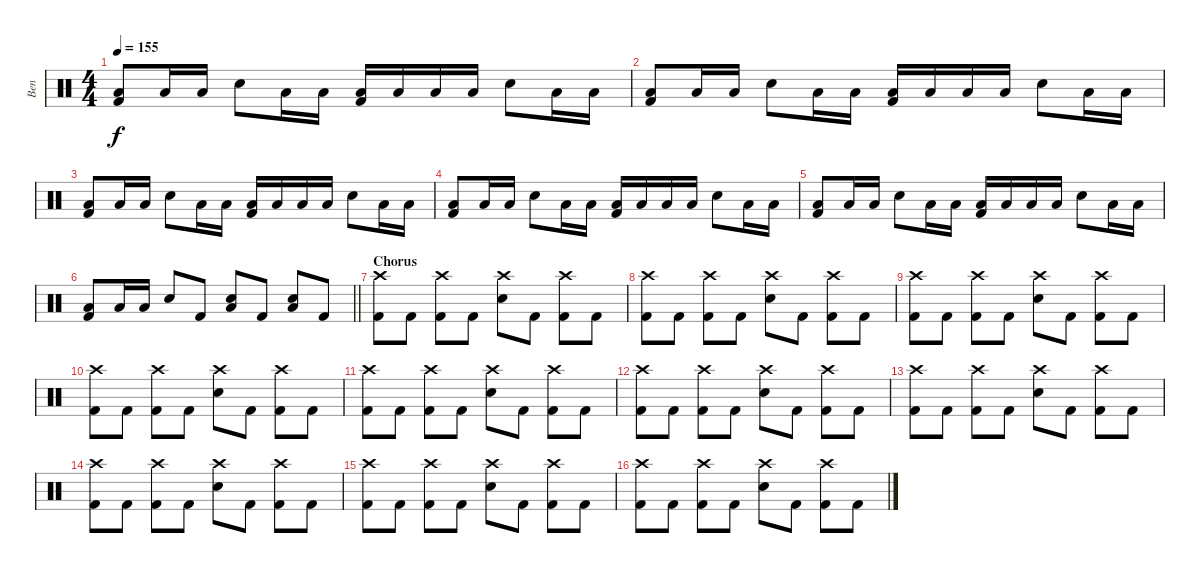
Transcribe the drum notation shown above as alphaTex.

\track ("Ben" "Ben") {instrument percussion}
\staff {score}
\articulation defaults
\ts (4 4)
\tempo 155
\clef neutral
\ks c
("Kick (hit) 2" "Low Floor Tom (hit)").8{dy f} "Low Floor Tom (hit)".16 "Low Floor Tom (hit)".16 "Electric Snare (hit)".8 "Low Floor Tom (hit)".16 "Low Floor Tom (hit)".16 ("Low Floor Tom (hit)" "Kick (hit) 2").16 "Low Floor Tom (hit)".16 "Low Floor Tom (hit)".16 "Low Floor Tom (hit)".16 "Electric Snare (hit)".8 "Low Floor Tom (hit)".16 "Low Floor Tom (hit)".16 |
("Kick (hit) 2" "Low Floor Tom (hit)").8 "Low Floor Tom (hit)".16 "Low Floor Tom (hit)".16 "Electric Snare (hit)".8 "Low Floor Tom (hit)".16 "Low Floor Tom (hit)".16 ("Low Floor Tom (hit)" "Kick (hit) 2").16 "Low Floor Tom (hit)".16 "Low Floor Tom (hit)".16 "Low Floor Tom (hit)".16 "Electric Snare (hit)".8 "Low Floor Tom (hit)".16 "Low Floor Tom (hit)".16 |
("Kick (hit) 2" "Low Floor Tom (hit)").8 "Low Floor Tom (hit)".16 "Low Floor Tom (hit)".16 "Electric Snare (hit)".8 "Low Floor Tom (hit)".16 "Low Floor Tom (hit)".16 ("Low Floor Tom (hit)" "Kick (hit) 2").16 "Low Floor Tom (hit)".16 "Low Floor Tom (hit)".16 "Low Floor Tom (hit)".16 "Electric Snare (hit)".8 "Low Floor Tom (hit)".16 "Low Floor Tom (hit)".16 |
("Kick (hit) 2" "Low Floor Tom (hit)").8 "Low Floor Tom (hit)".16 "Low Floor Tom (hit)".16 "Electric Snare (hit)".8 "Low Floor Tom (hit)".16 "Low Floor Tom (hit)".16 ("Low Floor Tom (hit)" "Kick (hit) 2").16 "Low Floor Tom (hit)".16 "Low Floor Tom (hit)".16 "Low Floor Tom (hit)".16 "Electric Snare (hit)".8 "Low Floor Tom (hit)".16 "Low Floor Tom (hit)".16 |
("Kick (hit) 2" "Low Floor Tom (hit)").8 "Low Floor Tom (hit)".16 "Low Floor Tom (hit)".16 "Electric Snare (hit)".8 "Low Floor Tom (hit)".16 "Low Floor Tom (hit)".16 ("Low Floor Tom (hit)" "Kick (hit) 2").16 "Low Floor Tom (hit)".16 "Low Floor Tom (hit)".16 "Low Floor Tom (hit)".16 "Electric Snare (hit)".8 "Low Floor Tom (hit)".16 "Low Floor Tom (hit)".16 |
\barLineRight lightlight
("Kick (hit) 2" "Low Floor Tom (hit)").8 "Low Floor Tom (hit)".16 "Low Floor Tom (hit)".16 "Electric Snare (hit)".8 "Kick (hit) 2".8 ("Electric Snare (hit)" "Low Floor Tom (hit)").8 "Kick (hit) 2".8 ("Electric Snare (hit)" "Low Floor Tom (hit)").8 "Kick (hit) 2".8 |
\section ("" "Chorus")
("Kick (hit) 2" "Crash high (hit)").8 "Kick (hit) 2".8 ("Kick (hit) 2" "Crash high (hit)").8 "Kick (hit) 2".8 ("Electric Snare (hit)" "Crash high (hit)").8 "Kick (hit) 2".8 ("Kick (hit) 2" "Crash high (hit)").8 "Kick (hit) 2".8 |
("Kick (hit) 2" "Crash high (hit)").8 "Kick (hit) 2".8 ("Kick (hit) 2" "Crash high (hit)").8 "Kick (hit) 2".8 ("Electric Snare (hit)" "Crash high (hit)").8 "Kick (hit) 2".8 ("Kick (hit) 2" "Crash high (hit)").8 "Kick (hit) 2".8 |
("Kick (hit) 2" "Crash high (hit)").8 "Kick (hit) 2".8 ("Kick (hit) 2" "Crash high (hit)").8 "Kick (hit) 2".8 ("Electric Snare (hit)" "Crash high (hit)").8 "Kick (hit) 2".8 ("Kick (hit) 2" "Crash high (hit)").8 "Kick (hit) 2".8 |
("Kick (hit) 2" "Crash high (hit)").8 "Kick (hit) 2".8 ("Kick (hit) 2" "Crash high (hit)").8 "Kick (hit) 2".8 ("Electric Snare (hit)" "Crash high (hit)").8 "Kick (hit) 2".8 ("Kick (hit) 2" "Crash high (hit)").8 "Kick (hit) 2".8 |
("Kick (hit) 2" "Crash high (hit)").8 "Kick (hit) 2".8 ("Kick (hit) 2" "Crash high (hit)").8 "Kick (hit) 2".8 ("Electric Snare (hit)" "Crash high (hit)").8 "Kick (hit) 2".8 ("Kick (hit) 2" "Crash high (hit)").8 "Kick (hit) 2".8 |
("Kick (hit) 2" "Crash high (hit)").8 "Kick (hit) 2".8 ("Kick (hit) 2" "Crash high (hit)").8 "Kick (hit) 2".8 ("Electric Snare (hit)" "Crash high (hit)").8 "Kick (hit) 2".8 ("Kick (hit) 2" "Crash high (hit)").8 "Kick (hit) 2".8 |
("Kick (hit) 2" "Crash high (hit)").8 "Kick (hit) 2".8 ("Kick (hit) 2" "Crash high (hit)").8 "Kick (hit) 2".8 ("Electric Snare (hit)" "Crash high (hit)").8 "Kick (hit) 2".8 ("Kick (hit) 2" "Crash high (hit)").8 "Kick (hit) 2".8 |
("Kick (hit) 2" "Crash high (hit)").8 "Kick (hit) 2".8 ("Kick (hit) 2" "Crash high (hit)").8 "Kick (hit) 2".8 ("Electric Snare (hit)" "Crash high (hit)").8 "Kick (hit) 2".8 ("Kick (hit) 2" "Crash high (hit)").8 "Kick (hit) 2".8 |
("Kick (hit) 2" "Crash high (hit)").8 "Kick (hit) 2".8 ("Kick (hit) 2" "Crash high (hit)").8 "Kick (hit) 2".8 ("Electric Snare (hit)" "Crash high (hit)").8 "Kick (hit) 2".8 ("Kick (hit) 2" "Crash high (hit)").8 "Kick (hit) 2".8 |
("Kick (hit) 2" "Crash high (hit)").8 "Kick (hit) 2".8 ("Kick (hit) 2" "Crash high (hit)").8 "Kick (hit) 2".8 ("Electric Snare (hit)" "Crash high (hit)").8 "Kick (hit) 2".8 ("Kick (hit) 2" "Crash high (hit)").8 "Kick (hit) 2".8
